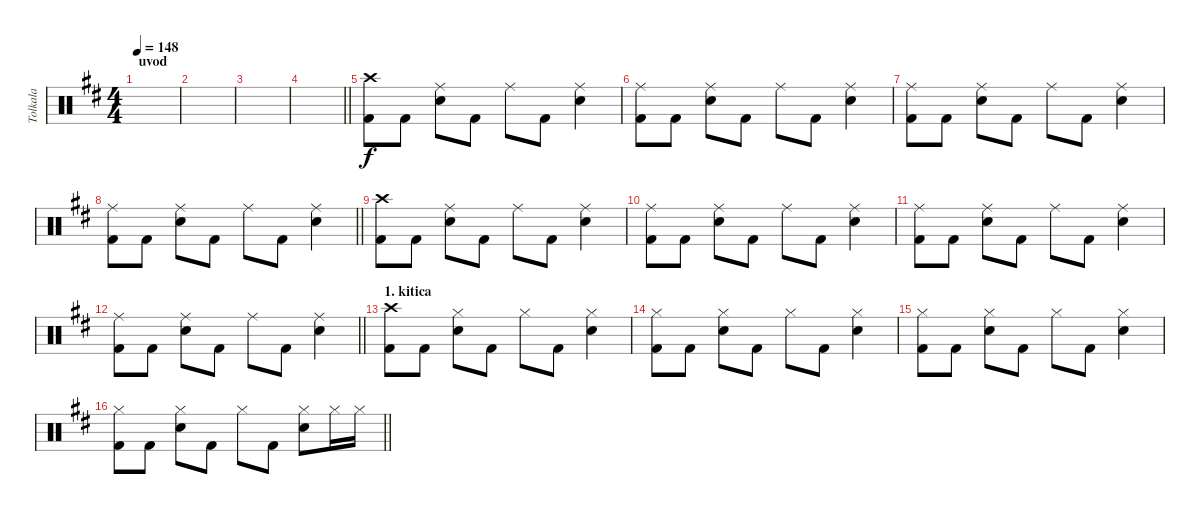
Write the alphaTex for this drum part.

\track ("Tolkala" "Tolkala") {instrument percussion}
\staff {score}
\articulation defaults
\ts (4 4)
\section ("" "uvod")
\tempo 148
\clef neutral
\ks d
|
|
|
\barLineRight lightlight
|
("Crash high (hit)" "Kick (hit) 2").8 "Kick (hit) 2".8 ("Snare (hit) 2" "Ride (middle)").8 "Kick (hit) 2".8 "Ride (middle)".8 "Kick (hit) 2".8 ("Snare (hit) 2" "Ride (middle)").4 |
("Kick (hit) 2" "Ride (middle)").8 "Kick (hit) 2".8 ("Snare (hit) 2" "Ride (middle)").8 "Kick (hit) 2".8 "Ride (middle)".8 "Kick (hit) 2".8 ("Snare (hit) 2" "Ride (middle)").4 |
("Kick (hit) 2" "Ride (middle)").8 "Kick (hit) 2".8 ("Snare (hit) 2" "Ride (middle)").8 "Kick (hit) 2".8 "Ride (middle)".8 "Kick (hit) 2".8 ("Snare (hit) 2" "Ride (middle)").4 |
\barLineRight lightlight
("Kick (hit) 2" "Ride (middle)").8 "Kick (hit) 2".8 ("Snare (hit) 2" "Ride (middle)").8 "Kick (hit) 2".8 "Ride (middle)".8 "Kick (hit) 2".8 ("Snare (hit) 2" "Ride (middle)").4 |
("Crash high (hit)" "Kick (hit) 2").8 "Kick (hit) 2".8 ("Snare (hit) 2" "Ride (middle)").8 "Kick (hit) 2".8 "Ride (middle)".8 "Kick (hit) 2".8 ("Snare (hit) 2" "Ride (middle)").4 |
("Kick (hit) 2" "Ride (middle)").8 "Kick (hit) 2".8 ("Snare (hit) 2" "Ride (middle)").8 "Kick (hit) 2".8 "Ride (middle)".8 "Kick (hit) 2".8 ("Snare (hit) 2" "Ride (middle)").4 |
("Kick (hit) 2" "Ride (middle)").8 "Kick (hit) 2".8 ("Snare (hit) 2" "Ride (middle)").8 "Kick (hit) 2".8 "Ride (middle)".8 "Kick (hit) 2".8 ("Snare (hit) 2" "Ride (middle)").4 |
\barLineRight lightlight
("Kick (hit) 2" "Ride (middle)").8 "Kick (hit) 2".8 ("Snare (hit) 2" "Ride (middle)").8 "Kick (hit) 2".8 "Ride (middle)".8 "Kick (hit) 2".8 ("Snare (hit) 2" "Ride (middle)").4 |
\section ("" "1. kitica")
("Crash high (hit)" "Kick (hit) 2").8 "Kick (hit) 2".8 ("Snare (hit) 2" "Hi-Hat (closed)").8 "Kick (hit) 2".8 "Hi-Hat (closed)".8 "Kick (hit) 2".8 ("Snare (hit) 2" "Hi-Hat (closed)").4 |
("Kick (hit) 2" "Hi-Hat (closed)").8 "Kick (hit) 2".8 ("Snare (hit) 2" "Hi-Hat (closed)").8 "Kick (hit) 2".8 "Hi-Hat (closed)".8 "Kick (hit) 2".8 ("Snare (hit) 2" "Hi-Hat (closed)").4 |
("Kick (hit) 2" "Hi-Hat (closed)").8 "Kick (hit) 2".8 ("Snare (hit) 2" "Hi-Hat (closed)").8 "Kick (hit) 2".8 "Hi-Hat (closed)".8 "Kick (hit) 2".8 ("Snare (hit) 2" "Hi-Hat (closed)").4 |
\barLineRight lightlight
("Kick (hit) 2" "Hi-Hat (closed)").8 "Kick (hit) 2".8 ("Snare (hit) 2" "Hi-Hat (closed)").8 "Kick (hit) 2".8 "Hi-Hat (closed)".8 "Kick (hit) 2".8 ("Snare (hit) 2" "Hi-Hat (closed)").8 "Hi-Hat (closed)".16 "Hi-Hat (closed)".16
